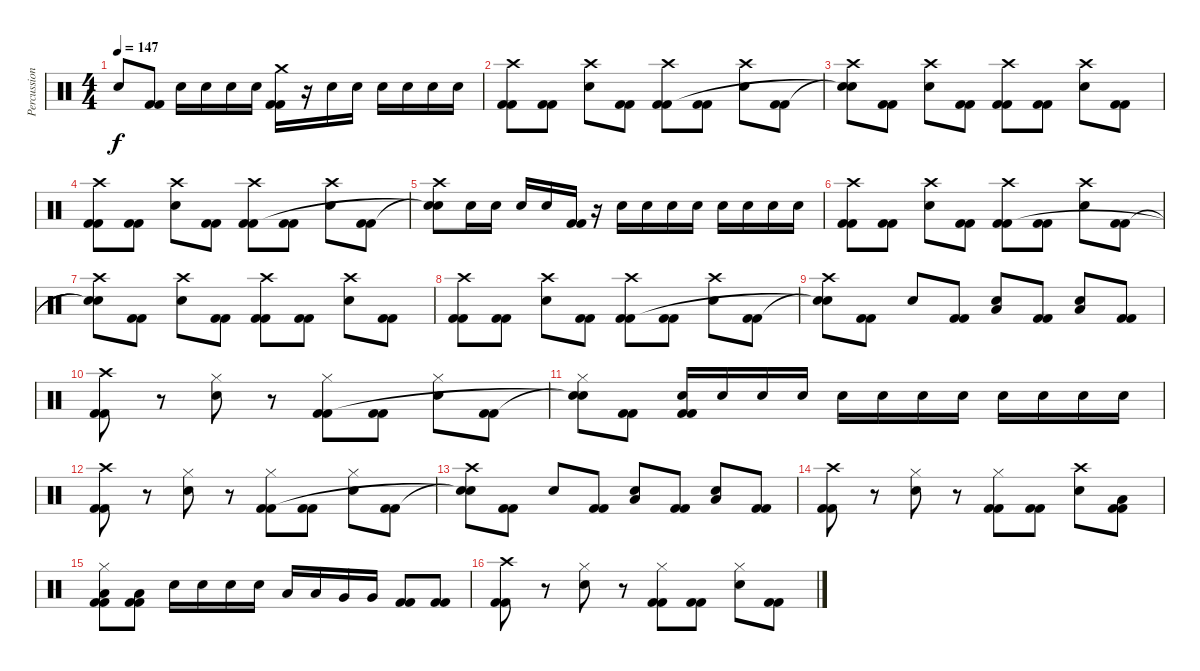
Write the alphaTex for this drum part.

\track ("Percussions" "Percussion") {instrument percussion}
\staff {score}
\articulation defaults
\ts (4 4)
\tempo 147
\clef neutral
\ks c "Snare (hit)"{t}.8{dy f}
("Kick (hit) 2" "Kick (hit) 2").8 "Snare (hit) 2".16 "Snare (hit) 2".16 "Snare (hit) 2".16 "Snare (hit) 2".16 ("Crash medium (hit)" "Kick (hit) 2" "Kick (hit) 2").16 r.16 "Snare (hit) 2".16 "Snare (hit) 2".16 "Snare (hit) 2".16 "Snare (hit) 2".16 "Snare (hit) 2".16 "Snare (hit) 2".16 |
("Crash high (hit)" "Kick (hit) 2" "Kick (hit) 2").8 ("Kick (hit) 2" "Kick (hit) 2").8 ("Crash high (hit)" "Snare (hit) 2").8 ("Kick (hit) 2" "Kick (hit) 2").8 ("Crash high (hit)" "Kick (hit) 2" "Kick (hit) 2").8 ("Kick (hit) 2" "Kick (hit) 2").8 ("Crash high (hit)" "Snare (hit) 2").8 ("Kick (hit) 2" "Kick (hit) 2").8 |
("Crash high (hit)" "Snare (hit)"{t} "Snare (hit)"{t}).8 ("Kick (hit) 2" "Kick (hit) 2").8 ("Crash high (hit)" "Snare (hit) 2").8 ("Kick (hit) 2" "Kick (hit) 2").8 ("Crash high (hit)" "Kick (hit) 2" "Kick (hit) 2").8 ("Kick (hit) 2" "Kick (hit) 2").8 ("Crash high (hit)" "Snare (hit) 2").8 ("Kick (hit) 2" "Kick (hit) 2").8 |
("Crash high (hit)" "Kick (hit) 2" "Kick (hit) 2").8 ("Kick (hit) 2" "Kick (hit) 2").8 ("Crash high (hit)" "Snare (hit) 2").8 ("Kick (hit) 2" "Kick (hit) 2").8 ("Crash high (hit)" "Kick (hit) 2" "Kick (hit) 2").8 ("Kick (hit) 2" "Kick (hit) 2").8 ("Crash high (hit)" "Snare (hit) 2").8 ("Kick (hit) 2" "Kick (hit) 2").8 |
("Crash high (hit)" "Snare (hit)"{t} "Snare (hit)"{t}).8 "Snare (hit) 2".16 "Snare (hit) 2".16 "Snare (hit) 2".16 "Snare (hit) 2".16 ("Kick (hit) 2" "Kick (hit) 2").16 r.16 "Snare (hit) 2".16 "Snare (hit) 2".16 "Snare (hit) 2".16 "Snare (hit) 2".16 "Snare (hit) 2".16 "Snare (hit) 2".16 "Snare (hit) 2".16 "Snare (hit) 2".16 |
("Crash high (hit)" "Kick (hit) 2" "Kick (hit) 2").8 ("Kick (hit) 2" "Kick (hit) 2").8 ("Crash high (hit)" "Snare (hit) 2").8 ("Kick (hit) 2" "Kick (hit) 2").8 ("Crash high (hit)" "Kick (hit) 2" "Kick (hit) 2").8 ("Kick (hit) 2" "Kick (hit) 2").8 ("Crash high (hit)" "Snare (hit) 2").8 ("Kick (hit) 2" "Kick (hit) 2").8 |
("Crash high (hit)" "Snare (hit)"{t} "Snare (hit)"{t}).8 ("Kick (hit) 2" "Kick (hit) 2").8 ("Crash high (hit)" "Snare (hit) 2").8 ("Kick (hit) 2" "Kick (hit) 2").8 ("Crash high (hit)" "Kick (hit) 2" "Kick (hit) 2").8 ("Kick (hit) 2" "Kick (hit) 2").8 ("Crash high (hit)" "Snare (hit) 2").8 ("Kick (hit) 2" "Kick (hit) 2").8 |
("Crash high (hit)" "Kick (hit) 2" "Kick (hit) 2").8 ("Kick (hit) 2" "Kick (hit) 2").8 ("Crash high (hit)" "Snare (hit) 2").8 ("Kick (hit) 2" "Kick (hit) 2").8 ("Crash high (hit)" "Kick (hit) 2" "Kick (hit) 2").8 ("Kick (hit) 2" "Kick (hit) 2").8 ("Crash high (hit)" "Snare (hit) 2").8 ("Kick (hit) 2" "Kick (hit) 2").8 |
("Crash high (hit)" "Snare (hit)"{t} "Snare (hit)"{t}).8 ("Kick (hit) 2" "Kick (hit) 2").8 "Snare (hit) 2".8 ("Kick (hit) 2" "Kick (hit) 2").8 ("Low Tom (hit)" "Snare (hit) 2").8 ("Kick (hit) 2" "Kick (hit) 2").8 ("Low Tom (hit)" "Snare (hit) 2").8 ("Kick (hit) 2" "Kick (hit) 2").8 |
("Crash high (hit)" "Kick (hit) 2" "Kick (hit) 2").8 r.8 ("Hi-Hat (closed)" "Snare (hit) 2").8 r.8 ("Hi-Hat (closed)" "Kick (hit) 2" "Kick (hit) 2").8 ("Kick (hit) 2" "Kick (hit) 2").8 ("Hi-Hat (closed)" "Snare (hit) 2").8 ("Kick (hit) 2" "Kick (hit) 2").8 |
("Hi-Hat (closed)" "Snare (hit)"{t} "Snare (hit)"{t}).8 ("Kick (hit) 2" "Kick (hit) 2").8 ("Snare (hit) 2" "Kick (hit) 2" "Kick (hit) 2").16 "Snare (hit) 2".16 "Snare (hit) 2".16 "Snare (hit) 2".16 "Snare (hit) 2".16 "Snare (hit) 2".16 "Snare (hit) 2".16 "Snare (hit) 2".16 "Snare (hit) 2".16 "Snare (hit) 2".16 "Snare (hit) 2".16 "Snare (hit) 2".16 |
("Crash high (hit)" "Kick (hit) 2" "Kick (hit) 2").8 r.8 ("Hi-Hat (closed)" "Snare (hit) 2").8 r.8 ("Hi-Hat (closed)" "Kick (hit) 2" "Kick (hit) 2").8 ("Kick (hit) 2" "Kick (hit) 2").8 ("Hi-Hat (closed)" "Snare (hit) 2").8 ("Kick (hit) 2" "Kick (hit) 2").8 |
("Crash high (hit)" "Snare (hit)"{t} "Snare (hit)"{t}).8 ("Kick (hit) 2" "Kick (hit) 2").8 "Snare (hit) 2".8 ("Kick (hit) 2" "Kick (hit) 2").8 ("Low Tom (hit)" "Snare (hit) 2").8 ("Kick (hit) 2" "Kick (hit) 2").8 ("Low Tom (hit)" "Snare (hit) 2").8 ("Kick (hit) 2" "Kick (hit) 2").8 |
("Crash high (hit)" "Kick (hit) 2" "Kick (hit) 2").8 r.8 ("Hi-Hat (closed)" "Snare (hit) 2").8 r.8 ("Hi-Hat (closed)" "Kick (hit) 2" "Kick (hit) 2").8 ("Kick (hit) 2" "Kick (hit) 2").8 ("Crash high (hit)" "Snare (hit) 2").8 ("Low Tom (hit)" "Kick (hit) 2" "Kick (hit) 2").8 |
("Hi-Hat (closed)" "Low Tom (hit)" "Kick (hit) 2" "Kick (hit) 2").8 ("Low Tom (hit)" "Kick (hit) 2" "Kick (hit) 2").8 "Snare (hit) 2".16 "Snare (hit) 2".16 "Snare (hit) 2".16 "Snare (hit) 2".16 "Low Tom (hit)".16 "Low Tom (hit)".16 "Very Low Tom (hit)".16 "Very Low Tom (hit)".16 ("Kick (hit) 2" "Kick (hit) 2").8 ("Kick (hit) 2" "Kick (hit) 2").8 |
("Crash high (hit)" "Kick (hit) 2" "Kick (hit) 2").8 r.8 ("Hi-Hat (closed)" "Snare (hit) 2").8 r.8 ("Hi-Hat (closed)" "Kick (hit) 2" "Kick (hit) 2").8 ("Kick (hit) 2" "Kick (hit) 2").8 ("Hi-Hat (closed)" "Snare (hit) 2").8 ("Kick (hit) 2" "Kick (hit) 2").8
